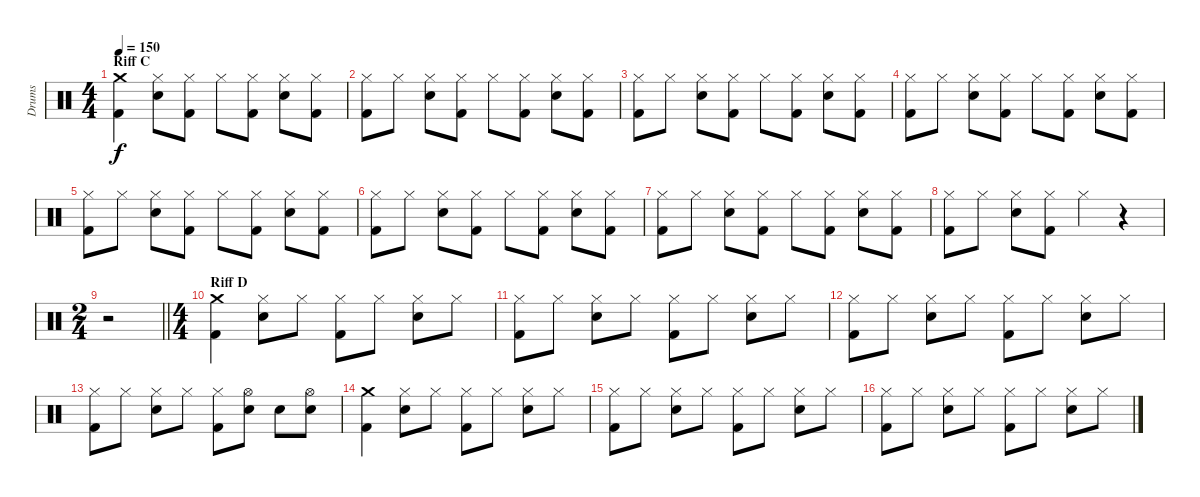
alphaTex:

\track ("Drums" "Drums") {instrument percussion}
\staff {score}
\articulation defaults
\ts (4 4)
\section ("" "Riff C")
\tempo 150
\clef neutral
\ks c
("Crash medium (hit)" "Kick (hit) 2").4{dy f} ("Hi-Hat (closed)" "Electric Snare (hit)").8 ("Hi-Hat (closed)" "Kick (hit) 2").8 "Hi-Hat (closed)".8 ("Hi-Hat (closed)" "Kick (hit) 2").8 ("Hi-Hat (closed)" "Electric Snare (hit)").8 ("Hi-Hat (closed)" "Kick (hit) 2").8 |
("Hi-Hat (closed)" "Kick (hit) 2").8 "Hi-Hat (closed)".8 ("Hi-Hat (closed)" "Electric Snare (hit)").8 ("Hi-Hat (closed)" "Kick (hit) 2").8 "Hi-Hat (closed)".8 ("Hi-Hat (closed)" "Kick (hit) 2").8 ("Hi-Hat (closed)" "Electric Snare (hit)").8 ("Hi-Hat (closed)" "Kick (hit) 2").8 |
("Hi-Hat (closed)" "Kick (hit) 2").8 "Hi-Hat (closed)".8 ("Hi-Hat (closed)" "Electric Snare (hit)").8 ("Hi-Hat (closed)" "Kick (hit) 2").8 "Hi-Hat (closed)".8 ("Hi-Hat (closed)" "Kick (hit) 2").8 ("Hi-Hat (closed)" "Electric Snare (hit)").8 ("Hi-Hat (closed)" "Kick (hit) 2").8 |
("Hi-Hat (closed)" "Kick (hit) 2").8 "Hi-Hat (closed)".8 ("Hi-Hat (closed)" "Electric Snare (hit)").8 ("Hi-Hat (closed)" "Kick (hit) 2").8 "Hi-Hat (closed)".8 ("Hi-Hat (closed)" "Kick (hit) 2").8 ("Hi-Hat (closed)" "Electric Snare (hit)").8 ("Hi-Hat (closed)" "Kick (hit) 2").8 |
("Hi-Hat (closed)" "Kick (hit) 2").8 "Hi-Hat (closed)".8 ("Hi-Hat (closed)" "Electric Snare (hit)").8 ("Hi-Hat (closed)" "Kick (hit) 2").8 "Hi-Hat (closed)".8 ("Hi-Hat (closed)" "Kick (hit) 2").8 ("Hi-Hat (closed)" "Electric Snare (hit)").8 ("Hi-Hat (closed)" "Kick (hit) 2").8 |
("Hi-Hat (closed)" "Kick (hit) 2").8 "Hi-Hat (closed)".8 ("Hi-Hat (closed)" "Electric Snare (hit)").8 ("Hi-Hat (closed)" "Kick (hit) 2").8 "Hi-Hat (closed)".8 ("Hi-Hat (closed)" "Kick (hit) 2").8 ("Hi-Hat (closed)" "Electric Snare (hit)").8 ("Hi-Hat (closed)" "Kick (hit) 2").8 |
("Hi-Hat (closed)" "Kick (hit) 2").8 "Hi-Hat (closed)".8 ("Hi-Hat (closed)" "Electric Snare (hit)").8 ("Hi-Hat (closed)" "Kick (hit) 2").8 "Hi-Hat (closed)".8 ("Hi-Hat (closed)" "Kick (hit) 2").8 ("Hi-Hat (closed)" "Electric Snare (hit)").8 ("Hi-Hat (closed)" "Kick (hit) 2").8 |
("Hi-Hat (closed)" "Kick (hit) 2").8 "Hi-Hat (closed)".8 ("Hi-Hat (closed)" "Electric Snare (hit)").8 ("Hi-Hat (closed)" "Kick (hit) 2").8 "Hi-Hat (closed)".4 r.4 |
\ts (2 4)
\barLineRight lightlight
r.2 |
\ts (4 4)
\section ("" "Riff D")
("Crash medium (hit)" "Kick (hit) 2").4 ("Hi-Hat (closed)" "Electric Snare (hit)").8 "Hi-Hat (closed)".8 ("Hi-Hat (closed)" "Kick (hit) 2").8 "Hi-Hat (closed)".8 ("Hi-Hat (closed)" "Electric Snare (hit)").8 "Hi-Hat (closed)".8 |
("Hi-Hat (closed)" "Kick (hit) 2").8 "Hi-Hat (closed)".8 ("Hi-Hat (closed)" "Electric Snare (hit)").8 "Hi-Hat (closed)".8 ("Hi-Hat (closed)" "Kick (hit) 2").8 "Hi-Hat (closed)".8 ("Hi-Hat (closed)" "Electric Snare (hit)").8 "Hi-Hat (closed)".8 |
("Hi-Hat (closed)" "Kick (hit) 2").8 "Hi-Hat (closed)".8 ("Hi-Hat (closed)" "Electric Snare (hit)").8 "Hi-Hat (closed)".8 ("Hi-Hat (closed)" "Kick (hit) 2").8 "Hi-Hat (closed)".8 ("Hi-Hat (closed)" "Electric Snare (hit)").8 "Hi-Hat (closed)".8 |
("Hi-Hat (closed)" "Kick (hit) 2").8 "Hi-Hat (closed)".8 ("Hi-Hat (closed)" "Electric Snare (hit)").8 "Hi-Hat (closed)".8 ("Hi-Hat (closed)" "Kick (hit) 2").8 ("Hi-Hat (open)" "Electric Snare (hit)").8 "Electric Snare (hit)".8 ("Hi-Hat (open)" "Electric Snare (hit)").8 |
("Crash medium (hit)" "Kick (hit) 2").4 ("Hi-Hat (closed)" "Electric Snare (hit)").8 "Hi-Hat (closed)".8 ("Hi-Hat (closed)" "Kick (hit) 2").8 "Hi-Hat (closed)".8 ("Hi-Hat (closed)" "Electric Snare (hit)").8 "Hi-Hat (closed)".8 |
("Hi-Hat (closed)" "Kick (hit) 2").8 "Hi-Hat (closed)".8 ("Hi-Hat (closed)" "Electric Snare (hit)").8 "Hi-Hat (closed)".8 ("Hi-Hat (closed)" "Kick (hit) 2").8 "Hi-Hat (closed)".8 ("Hi-Hat (closed)" "Electric Snare (hit)").8 "Hi-Hat (closed)".8 |
("Hi-Hat (closed)" "Kick (hit) 2").8 "Hi-Hat (closed)".8 ("Hi-Hat (closed)" "Electric Snare (hit)").8 "Hi-Hat (closed)".8 ("Hi-Hat (closed)" "Kick (hit) 2").8 "Hi-Hat (closed)".8 ("Hi-Hat (closed)" "Electric Snare (hit)").8 "Hi-Hat (closed)".8
